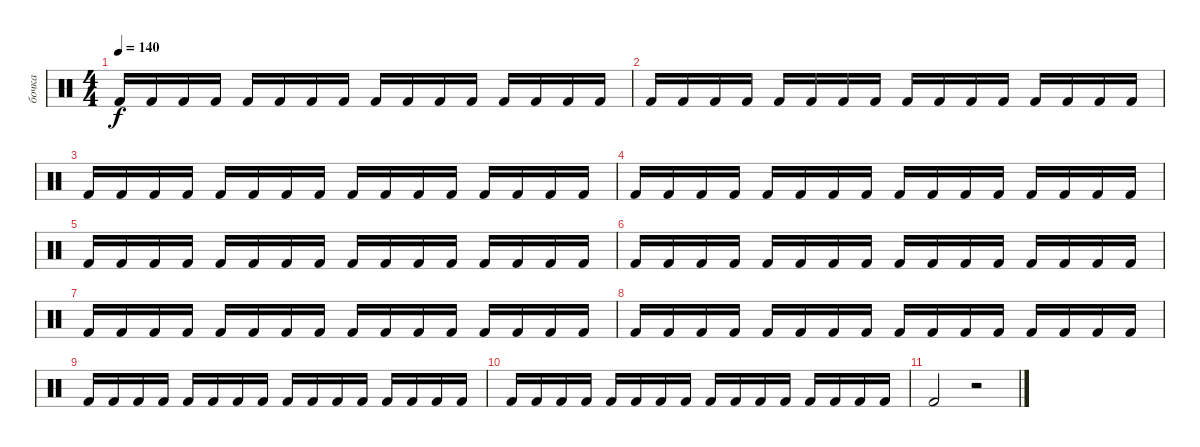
\track ("бочка" "бочка") {mute instrument percussion}
\staff {score}
\articulation defaults
\ts (4 4)
\tempo 140
\clef neutral
\ks c "Kick (hit) 2".16{dy f} "Kick (hit) 2".16 "Kick (hit) 2".16 "Kick (hit) 2".16 "Kick (hit) 2".16 "Kick (hit) 2".16 "Kick (hit) 2".16 "Kick (hit) 2".16 "Kick (hit) 2".16 "Kick (hit) 2".16 "Kick (hit) 2".16 "Kick (hit) 2".16 "Kick (hit) 2".16 "Kick (hit) 2".16 "Kick (hit) 2".16 "Kick (hit) 2".16
|
"Kick (hit) 2".16 "Kick (hit) 2".16 "Kick (hit) 2".16 "Kick (hit) 2".16 "Kick (hit) 2".16 "Kick (hit) 2".16 "Kick (hit) 2".16 "Kick (hit) 2".16 "Kick (hit) 2".16 "Kick (hit) 2".16 "Kick (hit) 2".16 "Kick (hit) 2".16 "Kick (hit) 2".16 "Kick (hit) 2".16 "Kick (hit) 2".16 "Kick (hit) 2".16 |
"Kick (hit) 2".16 "Kick (hit) 2".16 "Kick (hit) 2".16 "Kick (hit) 2".16 "Kick (hit) 2".16 "Kick (hit) 2".16 "Kick (hit) 2".16 "Kick (hit) 2".16 "Kick (hit) 2".16 "Kick (hit) 2".16 "Kick (hit) 2".16 "Kick (hit) 2".16 "Kick (hit) 2".16 "Kick (hit) 2".16 "Kick (hit) 2".16 "Kick (hit) 2".16 |
"Kick (hit) 2".16 "Kick (hit) 2".16 "Kick (hit) 2".16 "Kick (hit) 2".16 "Kick (hit) 2".16 "Kick (hit) 2".16 "Kick (hit) 2".16 "Kick (hit) 2".16 "Kick (hit) 2".16 "Kick (hit) 2".16 "Kick (hit) 2".16 "Kick (hit) 2".16 "Kick (hit) 2".16 "Kick (hit) 2".16 "Kick (hit) 2".16 "Kick (hit) 2".16 |
"Kick (hit) 2".16 "Kick (hit) 2".16 "Kick (hit) 2".16 "Kick (hit) 2".16 "Kick (hit) 2".16 "Kick (hit) 2".16 "Kick (hit) 2".16 "Kick (hit) 2".16 "Kick (hit) 2".16 "Kick (hit) 2".16 "Kick (hit) 2".16 "Kick (hit) 2".16 "Kick (hit) 2".16 "Kick (hit) 2".16 "Kick (hit) 2".16 "Kick (hit) 2".16 |
"Kick (hit) 2".16 "Kick (hit) 2".16 "Kick (hit) 2".16 "Kick (hit) 2".16 "Kick (hit) 2".16 "Kick (hit) 2".16 "Kick (hit) 2".16 "Kick (hit) 2".16 "Kick (hit) 2".16 "Kick (hit) 2".16 "Kick (hit) 2".16 "Kick (hit) 2".16 "Kick (hit) 2".16 "Kick (hit) 2".16 "Kick (hit) 2".16 "Kick (hit) 2".16 |
"Kick (hit) 2".16 "Kick (hit) 2".16 "Kick (hit) 2".16 "Kick (hit) 2".16 "Kick (hit) 2".16 "Kick (hit) 2".16 "Kick (hit) 2".16 "Kick (hit) 2".16 "Kick (hit) 2".16 "Kick (hit) 2".16 "Kick (hit) 2".16 "Kick (hit) 2".16 "Kick (hit) 2".16 "Kick (hit) 2".16 "Kick (hit) 2".16 "Kick (hit) 2".16 |
"Kick (hit) 2".16 "Kick (hit) 2".16 "Kick (hit) 2".16 "Kick (hit) 2".16 "Kick (hit) 2".16 "Kick (hit) 2".16 "Kick (hit) 2".16 "Kick (hit) 2".16 "Kick (hit) 2".16 "Kick (hit) 2".16 "Kick (hit) 2".16 "Kick (hit) 2".16 "Kick (hit) 2".16 "Kick (hit) 2".16 "Kick (hit) 2".16 "Kick (hit) 2".16 |
"Kick (hit) 2".16 "Kick (hit) 2".16 "Kick (hit) 2".16 "Kick (hit) 2".16 "Kick (hit) 2".16 "Kick (hit) 2".16 "Kick (hit) 2".16 "Kick (hit) 2".16 "Kick (hit) 2".16 "Kick (hit) 2".16 "Kick (hit) 2".16 "Kick (hit) 2".16 "Kick (hit) 2".16 "Kick (hit) 2".16 "Kick (hit) 2".16 "Kick (hit) 2".16 |
"Kick (hit) 2".16 "Kick (hit) 2".16 "Kick (hit) 2".16 "Kick (hit) 2".16 "Kick (hit) 2".16 "Kick (hit) 2".16 "Kick (hit) 2".16 "Kick (hit) 2".16 "Kick (hit) 2".16 "Kick (hit) 2".16 "Kick (hit) 2".16 "Kick (hit) 2".16 "Kick (hit) 2".16 "Kick (hit) 2".16 "Kick (hit) 2".16 "Kick (hit) 2".16 |
"Kick (hit) 2".2 r.2
